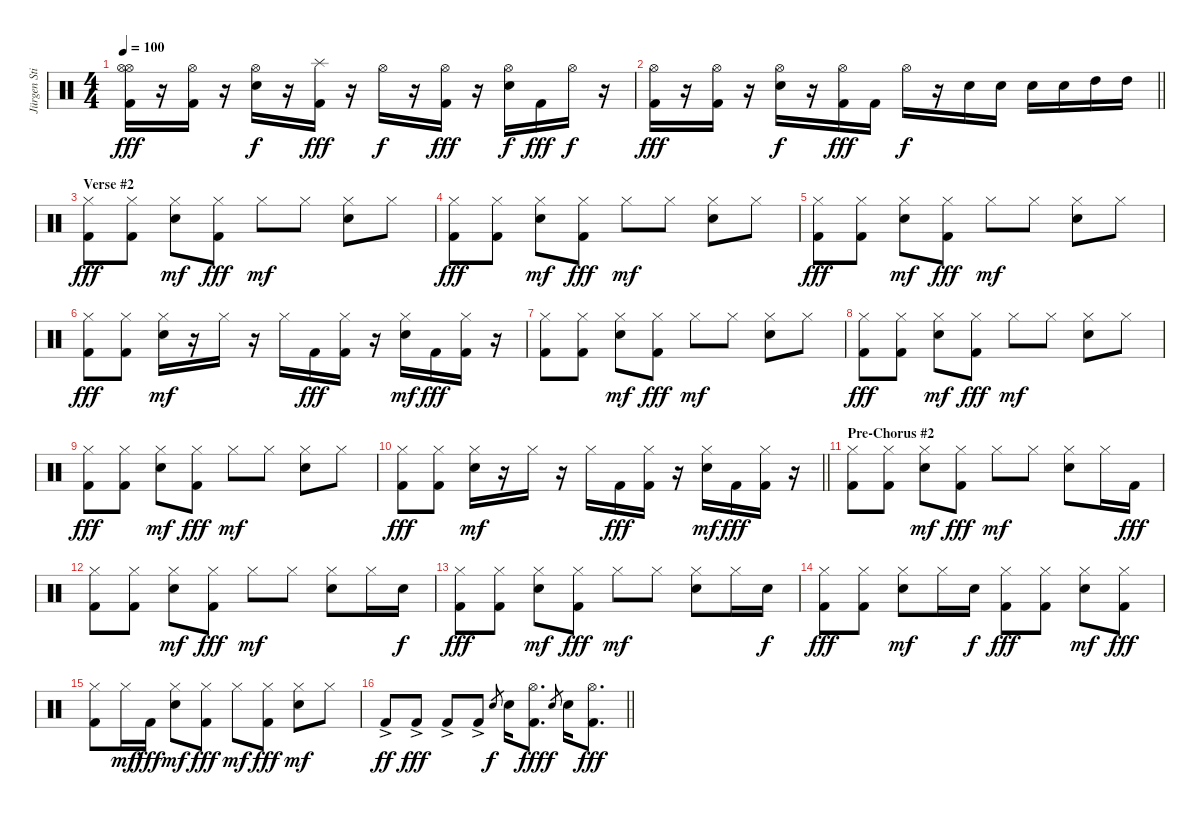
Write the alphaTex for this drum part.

\track ("Jürgen Stiehle" "Jürgen Sti") {instrument percussion}
\staff {score}
\articulation defaults
\ts (4 4)
\tempo 100
\clef neutral
\ks c
("Hi-Hat (open)" "Hi-Hat (open)" "Kick (hit) 2").16{dy fff} r.16 ("Hi-Hat (open)" "Kick (hit) 2").16 r.16 ("Hi-Hat (open)" "Electric Snare (hit)").16{dy f} r.16 ("Splash (hit)" "Kick (hit) 2").16{dy fff} r.16 "Hi-Hat (open)".16{dy f} r.16 ("Hi-Hat (open)" "Kick (hit) 2").16{dy fff} r.16 ("Hi-Hat (open)" "Electric Snare (hit)").16{dy f} "Kick (hit) 2".16{dy fff} "Hi-Hat (open)".16{dy f} r.16 |
\barLineRight lightlight
("Hi-Hat (open)" "Kick (hit) 2").16{dy fff} r.16 ("Hi-Hat (open)" "Kick (hit) 2").16 r.16 ("Hi-Hat (open)" "Electric Snare (hit)").16{dy f} r.16 ("Hi-Hat (open)" "Kick (hit) 2").16{dy fff} "Kick (hit) 2".16 "Hi-Hat (open)".16{dy f} r.16 "Electric Snare (hit)".16 "Electric Snare (hit)".16 "Electric Snare (hit)".16 "Electric Snare (hit)".16 "High Tom (hit)".16 "High Tom (hit)".16 |
\section ("" "Verse #2")
("Hi-Hat (closed)" "Kick (hit) 2").8{dy fff} ("Hi-Hat (closed)" "Kick (hit) 2").8 ("Hi-Hat (closed)" "Electric Snare (hit)").8{dy mf} ("Hi-Hat (closed)" "Kick (hit) 2").8{dy fff} "Hi-Hat (closed)".8{dy mf} "Hi-Hat (closed)".8 ("Hi-Hat (closed)" "Electric Snare (hit)").8 "Hi-Hat (closed)".8 |
("Hi-Hat (closed)" "Kick (hit) 2").8{dy fff} ("Hi-Hat (closed)" "Kick (hit) 2").8 ("Hi-Hat (closed)" "Electric Snare (hit)").8{dy mf} ("Hi-Hat (closed)" "Kick (hit) 2").8{dy fff} "Hi-Hat (closed)".8{dy mf} "Hi-Hat (closed)".8 ("Hi-Hat (closed)" "Electric Snare (hit)").8 "Hi-Hat (closed)".8 |
("Hi-Hat (closed)" "Kick (hit) 2").8{dy fff} ("Hi-Hat (closed)" "Kick (hit) 2").8 ("Hi-Hat (closed)" "Electric Snare (hit)").8{dy mf} ("Hi-Hat (closed)" "Kick (hit) 2").8{dy fff} "Hi-Hat (closed)".8{dy mf} "Hi-Hat (closed)".8 ("Hi-Hat (closed)" "Electric Snare (hit)").8 "Hi-Hat (closed)".8 |
("Hi-Hat (closed)" "Kick (hit) 2").8{dy fff} ("Hi-Hat (closed)" "Kick (hit) 2").8 ("Hi-Hat (closed)" "Electric Snare (hit)").16{dy mf} r.16 "Hi-Hat (closed)".16 r.16 "Hi-Hat (closed)".16 "Kick (hit) 2".16{dy fff} ("Hi-Hat (closed)" "Kick (hit) 2").16 r.16 ("Hi-Hat (closed)" "Electric Snare (hit)").16{dy mf} "Kick (hit) 2".16{dy fff} ("Hi-Hat (closed)" "Kick (hit) 2").16 r.16 |
("Hi-Hat (closed)" "Kick (hit) 2").8 ("Hi-Hat (closed)" "Kick (hit) 2").8 ("Hi-Hat (closed)" "Electric Snare (hit)").8{dy mf} ("Hi-Hat (closed)" "Kick (hit) 2").8{dy fff} "Hi-Hat (closed)".8{dy mf} "Hi-Hat (closed)".8 ("Hi-Hat (closed)" "Electric Snare (hit)").8 "Hi-Hat (closed)".8 |
("Hi-Hat (closed)" "Kick (hit) 2").8{dy fff} ("Hi-Hat (closed)" "Kick (hit) 2").8 ("Hi-Hat (closed)" "Electric Snare (hit)").8{dy mf} ("Hi-Hat (closed)" "Kick (hit) 2").8{dy fff} "Hi-Hat (closed)".8{dy mf} "Hi-Hat (closed)".8 ("Hi-Hat (closed)" "Electric Snare (hit)").8 "Hi-Hat (closed)".8 |
("Hi-Hat (closed)" "Kick (hit) 2").8{dy fff} ("Hi-Hat (closed)" "Kick (hit) 2").8 ("Hi-Hat (closed)" "Electric Snare (hit)").8{dy mf} ("Hi-Hat (closed)" "Kick (hit) 2").8{dy fff} "Hi-Hat (closed)".8{dy mf} "Hi-Hat (closed)".8 ("Hi-Hat (closed)" "Electric Snare (hit)").8 "Hi-Hat (closed)".8 |
\barLineRight lightlight
("Hi-Hat (closed)" "Kick (hit) 2").8{dy fff} ("Hi-Hat (closed)" "Kick (hit) 2").8 ("Hi-Hat (closed)" "Electric Snare (hit)").16{dy mf} r.16 "Hi-Hat (closed)".16 r.16 "Hi-Hat (closed)".16 "Kick (hit) 2".16{dy fff} ("Hi-Hat (closed)" "Kick (hit) 2").16 r.16 ("Hi-Hat (closed)" "Electric Snare (hit)").16{dy mf} "Kick (hit) 2".16{dy fff} ("Hi-Hat (closed)" "Kick (hit) 2").16 r.16 |
\section ("" "Pre-Chorus #2")
("Hi-Hat (closed)" "Kick (hit) 2").8 ("Hi-Hat (closed)" "Kick (hit) 2").8 ("Hi-Hat (closed)" "Electric Snare (hit)").8{dy mf} ("Hi-Hat (closed)" "Kick (hit) 2").8{dy fff} "Hi-Hat (closed)".8{dy mf} "Hi-Hat (closed)".8 ("Hi-Hat (closed)" "Electric Snare (hit)").8 "Hi-Hat (closed)".16 "Kick (hit) 2".16{dy fff} |
("Hi-Hat (closed)" "Kick (hit) 2").8 ("Hi-Hat (closed)" "Kick (hit) 2").8 ("Hi-Hat (closed)" "Electric Snare (hit)").8{dy mf} ("Hi-Hat (closed)" "Kick (hit) 2").8{dy fff} "Hi-Hat (closed)".8{dy mf} "Hi-Hat (closed)".8 ("Hi-Hat (closed)" "Electric Snare (hit)").8 "Hi-Hat (closed)".16 "Electric Snare (hit)".16{dy f} |
("Hi-Hat (closed)" "Kick (hit) 2").8{dy fff} ("Hi-Hat (closed)" "Kick (hit) 2").8 ("Hi-Hat (closed)" "Electric Snare (hit)").8{dy mf} ("Hi-Hat (closed)" "Kick (hit) 2").8{dy fff} "Hi-Hat (closed)".8{dy mf} "Hi-Hat (closed)".8 ("Hi-Hat (closed)" "Electric Snare (hit)").8 "Hi-Hat (closed)".16 "Electric Snare (hit)".16{dy f} |
("Hi-Hat (closed)" "Kick (hit) 2").8{dy fff} ("Hi-Hat (closed)" "Kick (hit) 2").8 ("Hi-Hat (closed)" "Electric Snare (hit)").8{dy mf} "Hi-Hat (closed)".16 "Electric Snare (hit)".16{dy f} ("Hi-Hat (closed)" "Kick (hit) 2").8{dy fff} ("Hi-Hat (closed)" "Kick (hit) 2").8 ("Hi-Hat (closed)" "Electric Snare (hit)").8{dy mf} ("Hi-Hat (closed)" "Kick (hit) 2").8{dy fff} |
("Hi-Hat (closed)" "Kick (hit) 2").8 "Hi-Hat (closed)".16{dy mf} "Kick (hit) 2".16{dy fff} ("Hi-Hat (closed)" "Electric Snare (hit)").8{dy mf} ("Hi-Hat (closed)" "Kick (hit) 2").8{dy fff} "Hi-Hat (closed)".8{dy mf} ("Hi-Hat (closed)" "Kick (hit) 2").8{dy fff} ("Hi-Hat (closed)" "Electric Snare (hit)").8{dy mf} "Hi-Hat (closed)".8 |
\barLineRight lightlight "Kick (hit) 2"{ac}.8{dy ff} "Kick (hit) 2"{ac}.8{dy fff} "Kick (hit) 2"{ac}.8 "Kick (hit) 2"{ac}.8 "Electric Snare (hit)".8{gr dy f} "Electric Snare (hit)".16
("Hi-Hat (open)" "Kick (hit) 2").8{d dy fff} "Electric Snare (hit)".8{gr dy f} "Electric Snare (hit)".16 ("Hi-Hat (open)" "Kick (hit) 2").8{d dy fff}
